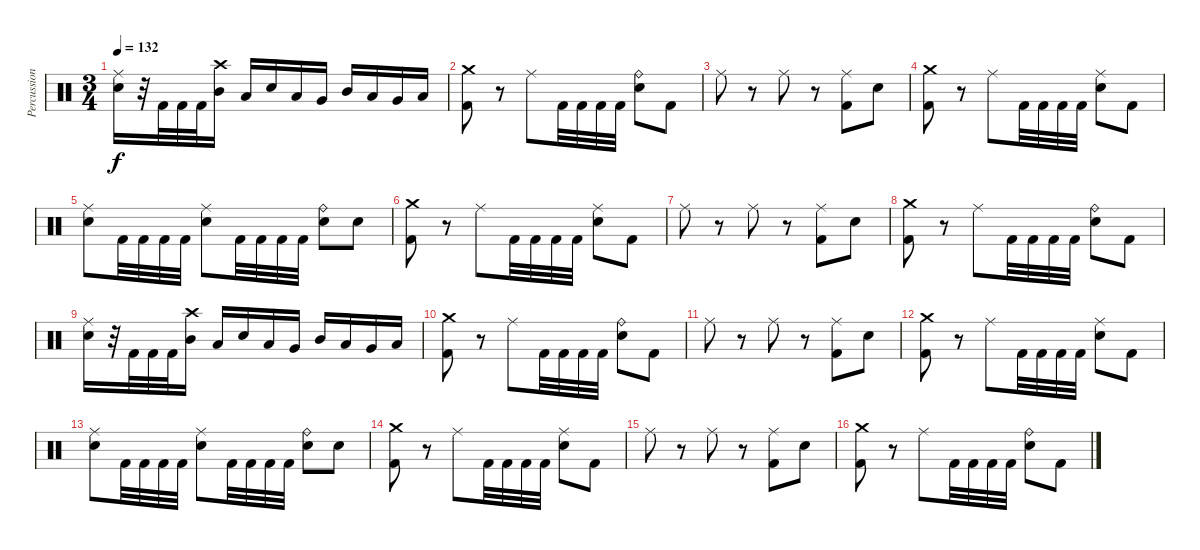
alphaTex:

\track ("Percussion" "Percussion") {instrument percussion}
\staff {score}
\articulation defaults
\ts (3 4)
\tempo 132
\clef neutral
\ks c
("Ride (middle)" "Electric Snare (hit)").16{dy f} r.32 "Kick (hit) 2".32 "Kick (hit) 2".32 "Kick (hit) 2".32 ("Crash high (hit)" "Mid Tom (hit)").16 "Low Tom (hit)".16 "Electric Snare (hit)".16 "Low Tom (hit)".16 "Very Low Tom (hit)".16 "Mid Tom (hit)".16 "Low Tom (hit)".16 "Very Low Tom (hit)".16 "Low Floor Tom (hit)".16 |
("Crash medium (hit)" "Kick (hit) 2").8 r.8 "Ride (middle)".8 "Kick (hit) 2".32 "Kick (hit) 2".32 "Kick (hit) 2".32 "Kick (hit) 2".32 ("Ride (bell)" "Electric Snare (hit)").8 "Kick (hit) 2".8 |
"Ride (middle)".8 r.8 "Ride (middle)".8 r.8 ("Ride (middle)" "Kick (hit) 2").8 "Electric Snare (hit)".8 |
("Crash medium (hit)" "Kick (hit) 2").8 r.8 "Ride (middle)".8 "Kick (hit) 2".32 "Kick (hit) 2".32 "Kick (hit) 2".32 "Kick (hit) 2".32 ("Ride (middle)" "Electric Snare (hit)").8 "Kick (hit) 2".8 |
("Ride (middle)" "Electric Snare (hit)").8 "Kick (hit) 2".32 "Kick (hit) 2".32 "Kick (hit) 2".32 "Kick (hit) 2".32 ("Ride (middle)" "Electric Snare (hit)").8 "Kick (hit) 2".32 "Kick (hit) 2".32 "Kick (hit) 2".32 "Kick (hit) 2".32 ("Ride (bell)" "Electric Snare (hit)").8 "Electric Snare (hit)".8 |
("Crash medium (hit)" "Kick (hit) 2").8 r.8 "Ride (middle)".8 "Kick (hit) 2".32 "Kick (hit) 2".32 "Kick (hit) 2".32 "Kick (hit) 2".32 ("Ride (middle)" "Electric Snare (hit)").8 "Kick (hit) 2".8 |
"Ride (middle)".8 r.8 "Ride (middle)".8 r.8 ("Ride (middle)" "Kick (hit) 2").8 "Electric Snare (hit)".8 |
("Crash medium (hit)" "Kick (hit) 2").8 r.8 "Ride (middle)".8 "Kick (hit) 2".32 "Kick (hit) 2".32 "Kick (hit) 2".32 "Kick (hit) 2".32 ("Ride (bell)" "Electric Snare (hit)").8 "Kick (hit) 2".8 |
("Ride (middle)" "Electric Snare (hit)").16 r.32 "Kick (hit) 2".32 "Kick (hit) 2".32 "Kick (hit) 2".32 ("Crash high (hit)" "Mid Tom (hit)").16 "Low Tom (hit)".16 "Electric Snare (hit)".16 "Low Tom (hit)".16 "Very Low Tom (hit)".16 "Mid Tom (hit)".16 "Low Tom (hit)".16 "Very Low Tom (hit)".16 "Low Floor Tom (hit)".16 |
("Crash medium (hit)" "Kick (hit) 2").8{volume 8} r.8 "Ride (middle)".8 "Kick (hit) 2".32 "Kick (hit) 2".32 "Kick (hit) 2".32 "Kick (hit) 2".32 ("Ride (bell)" "Electric Snare (hit)").8 "Kick (hit) 2".8 |
"Ride (middle)".8 r.8 "Ride (middle)".8 r.8 ("Ride (middle)" "Kick (hit) 2").8 "Electric Snare (hit)".8 |
("Crash medium (hit)" "Kick (hit) 2").8 r.8 "Ride (middle)".8 "Kick (hit) 2".32 "Kick (hit) 2".32 "Kick (hit) 2".32 "Kick (hit) 2".32 ("Ride (middle)" "Electric Snare (hit)").8 "Kick (hit) 2".8 |
("Ride (middle)" "Electric Snare (hit)").8 "Kick (hit) 2".32 "Kick (hit) 2".32 "Kick (hit) 2".32 "Kick (hit) 2".32 ("Ride (middle)" "Electric Snare (hit)").8 "Kick (hit) 2".32 "Kick (hit) 2".32 "Kick (hit) 2".32 "Kick (hit) 2".32 ("Ride (bell)" "Electric Snare (hit)").8 "Electric Snare (hit)".8 |
("Crash medium (hit)" "Kick (hit) 2").8{volume 0} r.8 "Ride (middle)".8 "Kick (hit) 2".32 "Kick (hit) 2".32 "Kick (hit) 2".32 "Kick (hit) 2".32 ("Ride (middle)" "Electric Snare (hit)").8 "Kick (hit) 2".8 |
"Ride (middle)".8 r.8 "Ride (middle)".8 r.8 ("Ride (middle)" "Kick (hit) 2").8 "Electric Snare (hit)".8 |
("Crash medium (hit)" "Kick (hit) 2").8 r.8 "Ride (middle)".8 "Kick (hit) 2".32 "Kick (hit) 2".32 "Kick (hit) 2".32 "Kick (hit) 2".32 ("Ride (bell)" "Electric Snare (hit)").8 "Kick (hit) 2".8
